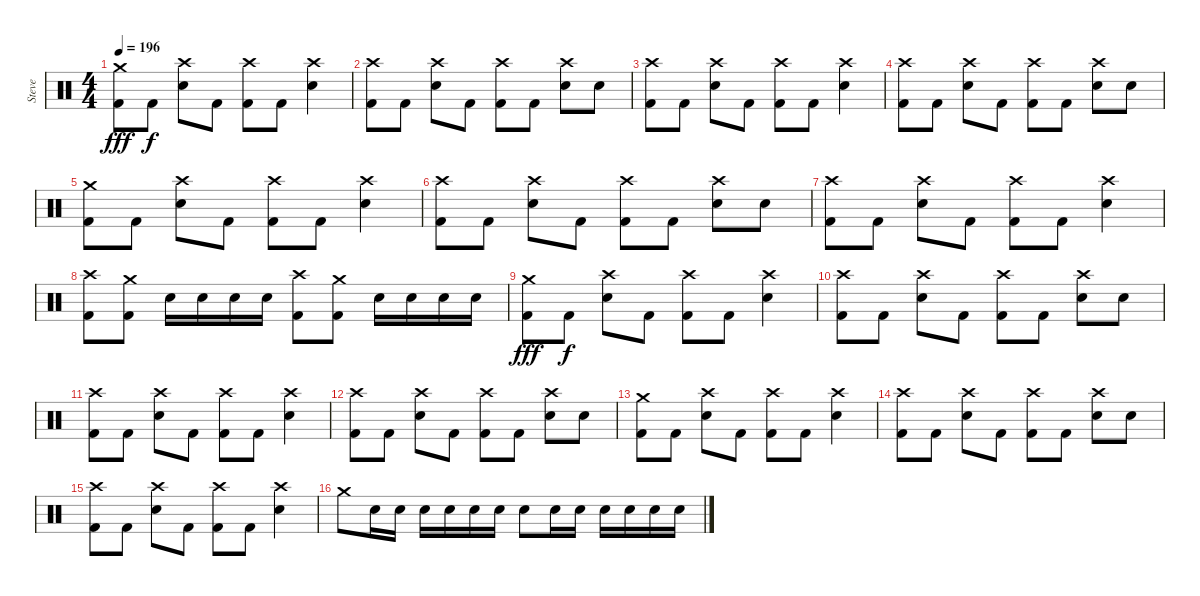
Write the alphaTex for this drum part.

\track ("Steve" "Steve") {instrument percussion}
\staff {score}
\articulation defaults
\ts (4 4)
\tempo 196
\clef neutral
\ks c
("Crash medium (hit)" "Kick (hit) 2").8{dy fff} "Kick (hit) 2".8{dy f} ("Crash high (hit)" "Electric Snare (hit)").8 "Kick (hit) 2".8 ("Crash high (hit)" "Kick (hit) 2").8 "Kick (hit) 2".8 ("Crash high (hit)" "Electric Snare (hit)").4 |
("Crash high (hit)" "Kick (hit) 2").8 "Kick (hit) 2".8 ("Crash high (hit)" "Electric Snare (hit)").8 "Kick (hit) 2".8 ("Crash high (hit)" "Kick (hit) 2").8 "Kick (hit) 2".8 ("Crash high (hit)" "Electric Snare (hit)").8 "Electric Snare (hit)".8 |
("Crash high (hit)" "Kick (hit) 2").8 "Kick (hit) 2".8 ("Crash high (hit)" "Electric Snare (hit)").8 "Kick (hit) 2".8 ("Crash high (hit)" "Kick (hit) 2").8 "Kick (hit) 2".8 ("Crash high (hit)" "Electric Snare (hit)").4 |
("Crash high (hit)" "Kick (hit) 2").8 "Kick (hit) 2".8 ("Crash high (hit)" "Electric Snare (hit)").8 "Kick (hit) 2".8 ("Crash high (hit)" "Kick (hit) 2").8 "Kick (hit) 2".8 ("Crash high (hit)" "Electric Snare (hit)").8 "Electric Snare (hit)".8 |
("Crash medium (hit)" "Kick (hit) 2").8 "Kick (hit) 2".8 ("Crash high (hit)" "Electric Snare (hit)").8 "Kick (hit) 2".8 ("Crash high (hit)" "Kick (hit) 2").8 "Kick (hit) 2".8 ("Crash high (hit)" "Electric Snare (hit)").4 |
("Crash high (hit)" "Kick (hit) 2").8 "Kick (hit) 2".8 ("Crash high (hit)" "Electric Snare (hit)").8 "Kick (hit) 2".8 ("Crash high (hit)" "Kick (hit) 2").8 "Kick (hit) 2".8 ("Crash high (hit)" "Electric Snare (hit)").8 "Electric Snare (hit)".8 |
("Crash high (hit)" "Kick (hit) 2").8 "Kick (hit) 2".8 ("Crash high (hit)" "Electric Snare (hit)").8 "Kick (hit) 2".8 ("Crash high (hit)" "Kick (hit) 2").8 "Kick (hit) 2".8 ("Crash high (hit)" "Electric Snare (hit)").4 |
("Crash high (hit)" "Kick (hit) 2").8 ("Crash medium (hit)" "Kick (hit) 2").8 "Electric Snare (hit)".16 "Electric Snare (hit)".16 "Electric Snare (hit)".16 "Electric Snare (hit)".16 ("Crash high (hit)" "Kick (hit) 2").8 ("Crash medium (hit)" "Kick (hit) 2").8 "Electric Snare (hit)".16 "Electric Snare (hit)".16 "Electric Snare (hit)".16 "Electric Snare (hit)".16 |
("Crash medium (hit)" "Kick (hit) 2").8{dy fff} "Kick (hit) 2".8{dy f} ("Crash high (hit)" "Electric Snare (hit)").8 "Kick (hit) 2".8 ("Crash high (hit)" "Kick (hit) 2").8 "Kick (hit) 2".8 ("Crash high (hit)" "Electric Snare (hit)").4 |
("Crash high (hit)" "Kick (hit) 2").8 "Kick (hit) 2".8 ("Crash high (hit)" "Electric Snare (hit)").8 "Kick (hit) 2".8 ("Crash high (hit)" "Kick (hit) 2").8 "Kick (hit) 2".8 ("Crash high (hit)" "Electric Snare (hit)").8 "Electric Snare (hit)".8 |
("Crash high (hit)" "Kick (hit) 2").8 "Kick (hit) 2".8 ("Crash high (hit)" "Electric Snare (hit)").8 "Kick (hit) 2".8 ("Crash high (hit)" "Kick (hit) 2").8 "Kick (hit) 2".8 ("Crash high (hit)" "Electric Snare (hit)").4 |
("Crash high (hit)" "Kick (hit) 2").8 "Kick (hit) 2".8 ("Crash high (hit)" "Electric Snare (hit)").8 "Kick (hit) 2".8 ("Crash high (hit)" "Kick (hit) 2").8 "Kick (hit) 2".8 ("Crash high (hit)" "Electric Snare (hit)").8 "Electric Snare (hit)".8 |
("Crash medium (hit)" "Kick (hit) 2").8 "Kick (hit) 2".8 ("Crash high (hit)" "Electric Snare (hit)").8 "Kick (hit) 2".8 ("Crash high (hit)" "Kick (hit) 2").8 "Kick (hit) 2".8 ("Crash high (hit)" "Electric Snare (hit)").4 |
("Crash high (hit)" "Kick (hit) 2").8 "Kick (hit) 2".8 ("Crash high (hit)" "Electric Snare (hit)").8 "Kick (hit) 2".8 ("Crash high (hit)" "Kick (hit) 2").8 "Kick (hit) 2".8 ("Crash high (hit)" "Electric Snare (hit)").8 "Electric Snare (hit)".8 |
("Crash high (hit)" "Kick (hit) 2").8 "Kick (hit) 2".8 ("Crash high (hit)" "Electric Snare (hit)").8 "Kick (hit) 2".8 ("Crash high (hit)" "Kick (hit) 2").8 "Kick (hit) 2".8 ("Crash high (hit)" "Electric Snare (hit)").4 |
"Crash medium (hit)".8 "Electric Snare (hit)".16 "Electric Snare (hit)".16 "Electric Snare (hit)".16 "Electric Snare (hit)".16 "Electric Snare (hit)".16 "Electric Snare (hit)".16 "Electric Snare (hit)".8 "Electric Snare (hit)".16 "Electric Snare (hit)".16 "Electric Snare (hit)".16 "Electric Snare (hit)".16 "Electric Snare (hit)".16 "Electric Snare (hit)".16
